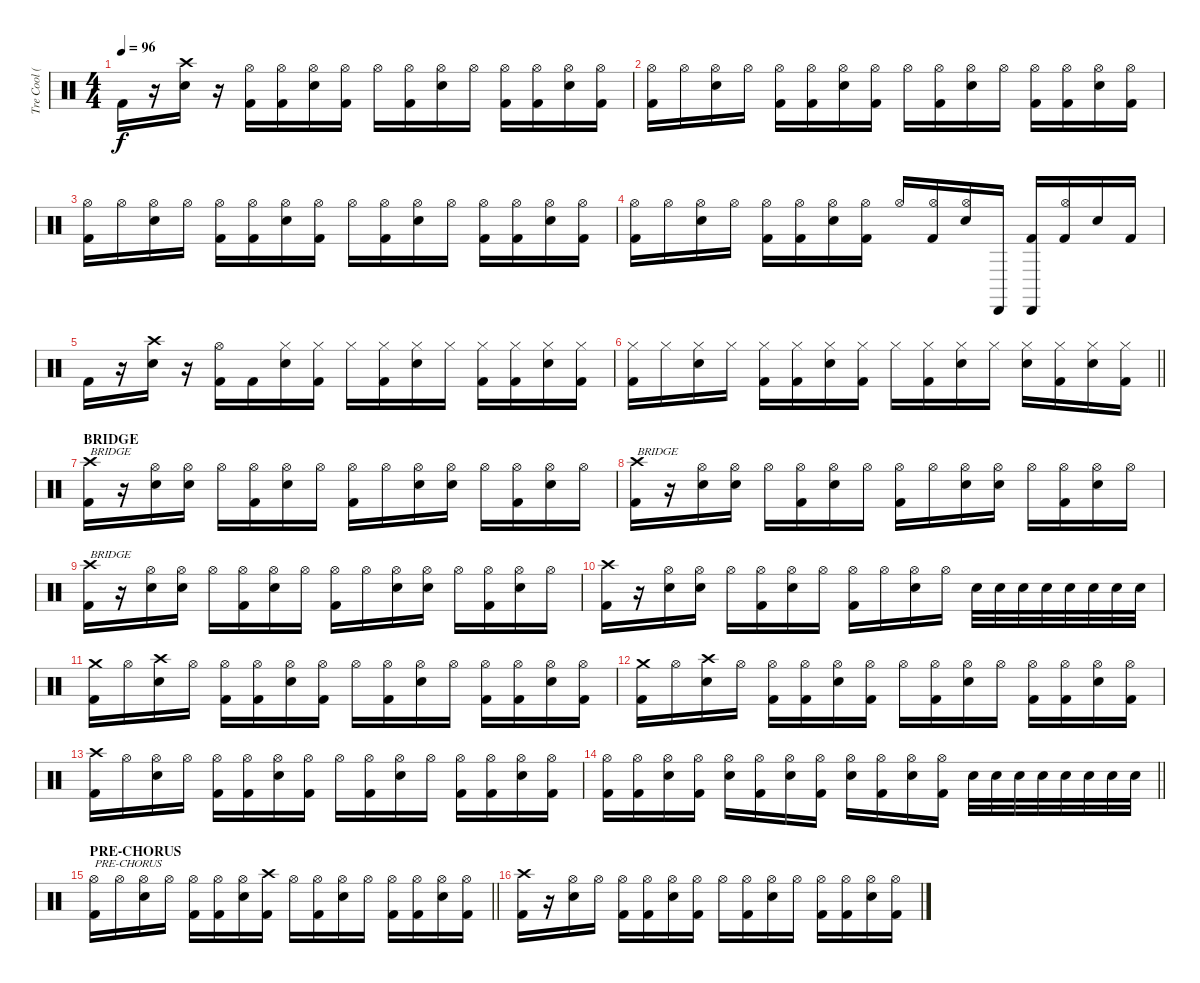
\track ("Tre Cool (Drums)" "Tre Cool (") {instrument percussion}
\staff {score}
\articulation defaults
\ts (4 4)
\tempo 96
\clef neutral
\ks c "Kick (hit) 2".16{dy f}
r.16 ("Crash high (hit)" "Electric Snare (hit)").16 r.16 ("Hi-Hat (open)" "Kick (hit) 2").16 ("Hi-Hat (open)" "Kick (hit) 2").16 ("Hi-Hat (open)" "Electric Snare (hit)").16 ("Hi-Hat (open)" "Kick (hit) 2").16 "Hi-Hat (open)".16 ("Hi-Hat (open)" "Kick (hit) 2").16 ("Hi-Hat (open)" "Electric Snare (hit)").16 "Hi-Hat (open)".16 ("Hi-Hat (open)" "Kick (hit) 2").16 ("Hi-Hat (open)" "Kick (hit) 2").16 ("Hi-Hat (open)" "Electric Snare (hit)").16 ("Hi-Hat (open)" "Kick (hit) 2").16 |
("Hi-Hat (open)" "Kick (hit) 2").16 "Hi-Hat (open)".16 ("Hi-Hat (open)" "Electric Snare (hit)").16 "Hi-Hat (open)".16 ("Hi-Hat (open)" "Kick (hit) 2").16 ("Hi-Hat (open)" "Kick (hit) 2").16 ("Hi-Hat (open)" "Electric Snare (hit)").16 ("Hi-Hat (open)" "Kick (hit) 2").16 "Hi-Hat (open)".16 ("Hi-Hat (open)" "Kick (hit) 2").16 ("Hi-Hat (open)" "Electric Snare (hit)").16 "Hi-Hat (open)".16 ("Hi-Hat (open)" "Kick (hit) 2").16 ("Hi-Hat (open)" "Kick (hit) 2").16 ("Hi-Hat (open)" "Electric Snare (hit)").16 ("Hi-Hat (open)" "Kick (hit) 2").16 |
("Hi-Hat (open)" "Kick (hit) 2").16 "Hi-Hat (open)".16 ("Hi-Hat (open)" "Electric Snare (hit)").16 "Hi-Hat (open)".16 ("Hi-Hat (open)" "Kick (hit) 2").16 ("Hi-Hat (open)" "Kick (hit) 2").16 ("Hi-Hat (open)" "Electric Snare (hit)").16 ("Hi-Hat (open)" "Kick (hit) 2").16 "Hi-Hat (open)".16 ("Hi-Hat (open)" "Kick (hit) 2").16 ("Hi-Hat (open)" "Electric Snare (hit)").16 "Hi-Hat (open)".16 ("Hi-Hat (open)" "Kick (hit) 2").16 ("Hi-Hat (open)" "Kick (hit) 2").16 ("Hi-Hat (open)" "Electric Snare (hit)").16 ("Hi-Hat (open)" "Kick (hit) 2").16 |
("Hi-Hat (open)" "Kick (hit) 2").16 "Hi-Hat (open)".16 ("Hi-Hat (open)" "Electric Snare (hit)").16 "Hi-Hat (open)".16 ("Hi-Hat (open)" "Kick (hit) 2").16 ("Hi-Hat (open)" "Kick (hit) 2").16 ("Hi-Hat (open)" "Electric Snare (hit)").16 ("Hi-Hat (open)" "Kick (hit) 2").16 "Hi-Hat (open)".16 ("Hi-Hat (open)" "Kick (hit) 2").16 ("Hi-Hat (open)" "Electric Snare (hit)").16 "Cabasa (hit)".16 ("Cabasa (hit)" "Kick (hit) 2").16 ("Hi-Hat (open)" "Kick (hit) 2").16 "Electric Snare (hit)".16 "Kick (hit) 2".16 |
"Kick (hit) 2".16 r.16 ("Crash high (hit)" "Electric Snare (hit)").16 r.16 ("Hi-Hat (open)" "Kick (hit) 2").16 "Kick (hit) 2".16 ("Hi-Hat (closed)" "Electric Snare (hit)").16 ("Hi-Hat (closed)" "Kick (hit) 2").16 "Hi-Hat (closed)".16 ("Hi-Hat (closed)" "Kick (hit) 2").16 ("Hi-Hat (closed)" "Electric Snare (hit)").16 "Hi-Hat (closed)".16 ("Hi-Hat (closed)" "Kick (hit) 2").16 ("Hi-Hat (closed)" "Kick (hit) 2").16 ("Hi-Hat (closed)" "Electric Snare (hit)").16 ("Hi-Hat (closed)" "Kick (hit) 2").16 |
\barLineRight lightlight
("Hi-Hat (closed)" "Kick (hit) 2").16 "Hi-Hat (closed)".16 ("Hi-Hat (closed)" "Electric Snare (hit)").16 "Hi-Hat (closed)".16 ("Hi-Hat (closed)" "Kick (hit) 2").16 ("Hi-Hat (closed)" "Kick (hit) 2").16 ("Hi-Hat (closed)" "Electric Snare (hit)").16 ("Hi-Hat (closed)" "Kick (hit) 2").16 "Hi-Hat (closed)".16 ("Hi-Hat (closed)" "Kick (hit) 2").16 ("Hi-Hat (closed)" "Electric Snare (hit)").16 "Hi-Hat (closed)".16 ("Hi-Hat (closed)" "Electric Snare (hit)").16 ("Hi-Hat (closed)" "Kick (hit) 2").16 ("Hi-Hat (closed)" "Electric Snare (hit)").16 ("Hi-Hat (closed)" "Kick (hit) 2").16 |
\section ("" "BRIDGE")
("Crash high (hit)" "Kick (hit) 2").16{txt "BRIDGE"} r.16 ("Hi-Hat (open)" "Electric Snare (hit)").16 ("Hi-Hat (open)" "Electric Snare (hit)").16 "Hi-Hat (open)".16 ("Hi-Hat (open)" "Kick (hit) 2").16 ("Hi-Hat (open)" "Electric Snare (hit)").16 "Hi-Hat (open)".16 ("Hi-Hat (open)" "Kick (hit) 2").16 "Hi-Hat (open)".16 ("Hi-Hat (open)" "Electric Snare (hit)").16 ("Hi-Hat (open)" "Electric Snare (hit)").16 "Hi-Hat (open)".16 ("Hi-Hat (open)" "Kick (hit) 2").16 ("Hi-Hat (open)" "Electric Snare (hit)").16 "Hi-Hat (open)".16 |
("Crash high (hit)" "Kick (hit) 2").16{txt "BRIDGE"} r.16 ("Hi-Hat (open)" "Electric Snare (hit)").16 ("Hi-Hat (open)" "Electric Snare (hit)").16 "Hi-Hat (open)".16 ("Hi-Hat (open)" "Kick (hit) 2").16 ("Hi-Hat (open)" "Electric Snare (hit)").16 "Hi-Hat (open)".16 ("Hi-Hat (open)" "Kick (hit) 2").16 "Hi-Hat (open)".16 ("Hi-Hat (open)" "Electric Snare (hit)").16 ("Hi-Hat (open)" "Electric Snare (hit)").16 "Hi-Hat (open)".16 ("Hi-Hat (open)" "Kick (hit) 2").16 ("Hi-Hat (open)" "Electric Snare (hit)").16 "Hi-Hat (open)".16 |
("Crash high (hit)" "Kick (hit) 2").16{txt "BRIDGE"} r.16 ("Hi-Hat (open)" "Electric Snare (hit)").16 ("Hi-Hat (open)" "Electric Snare (hit)").16 "Hi-Hat (open)".16 ("Hi-Hat (open)" "Kick (hit) 2").16 ("Hi-Hat (open)" "Electric Snare (hit)").16 "Hi-Hat (open)".16 ("Hi-Hat (open)" "Kick (hit) 2").16 "Hi-Hat (open)".16 ("Hi-Hat (open)" "Electric Snare (hit)").16 ("Hi-Hat (open)" "Electric Snare (hit)").16 "Hi-Hat (open)".16 ("Hi-Hat (open)" "Kick (hit) 2").16 ("Hi-Hat (open)" "Electric Snare (hit)").16 "Hi-Hat (open)".16 |
("Crash high (hit)" "Kick (hit) 2").16 r.16 ("Hi-Hat (open)" "Electric Snare (hit)").16 ("Hi-Hat (open)" "Electric Snare (hit)").16 "Hi-Hat (open)".16 ("Hi-Hat (open)" "Kick (hit) 2").16 ("Hi-Hat (open)" "Electric Snare (hit)").16 "Hi-Hat (open)".16 ("Hi-Hat (open)" "Kick (hit) 2").16 "Hi-Hat (open)".16 ("Hi-Hat (open)" "Electric Snare (hit)").16 "Hi-Hat (open)".16 "Electric Snare (hit)".32 "Electric Snare (hit)".32 "Electric Snare (hit)".32 "Electric Snare (hit)".32 "Electric Snare (hit)".32 "Electric Snare (hit)".32 "Electric Snare (hit)".32 "Electric Snare (hit)".32 |
("Crash medium (hit)" "Kick (hit) 2").16 "Hi-Hat (open)".16 ("Crash high (hit)" "Electric Snare (hit)").16 "Hi-Hat (open)".16 ("Hi-Hat (open)" "Kick (hit) 2").16 ("Hi-Hat (open)" "Kick (hit) 2").16 ("Hi-Hat (open)" "Electric Snare (hit)").16 ("Hi-Hat (open)" "Kick (hit) 2").16 "Hi-Hat (open)".16 ("Hi-Hat (open)" "Kick (hit) 2").16 ("Hi-Hat (open)" "Electric Snare (hit)").16 "Hi-Hat (open)".16 ("Hi-Hat (open)" "Kick (hit) 2").16 ("Hi-Hat (open)" "Kick (hit) 2").16 ("Hi-Hat (open)" "Electric Snare (hit)").16 ("Hi-Hat (open)" "Kick (hit) 2").16 |
("Crash medium (hit)" "Kick (hit) 2").16 "Hi-Hat (open)".16 ("Crash high (hit)" "Electric Snare (hit)").16 "Hi-Hat (open)".16 ("Hi-Hat (open)" "Kick (hit) 2").16 ("Hi-Hat (open)" "Kick (hit) 2").16 ("Hi-Hat (open)" "Electric Snare (hit)").16 ("Hi-Hat (open)" "Kick (hit) 2").16 "Hi-Hat (open)".16 ("Hi-Hat (open)" "Kick (hit) 2").16 ("Hi-Hat (open)" "Electric Snare (hit)").16 "Hi-Hat (open)".16 ("Hi-Hat (open)" "Kick (hit) 2").16 ("Hi-Hat (open)" "Kick (hit) 2").16 ("Hi-Hat (open)" "Electric Snare (hit)").16 ("Hi-Hat (open)" "Kick (hit) 2").16 |
("Crash high (hit)" "Kick (hit) 2").16 "Hi-Hat (open)".16 ("Hi-Hat (open)" "Electric Snare (hit)").16 "Hi-Hat (open)".16 ("Hi-Hat (open)" "Kick (hit) 2").16 ("Hi-Hat (open)" "Kick (hit) 2").16 ("Hi-Hat (open)" "Electric Snare (hit)").16 ("Hi-Hat (open)" "Kick (hit) 2").16 "Hi-Hat (open)".16 ("Hi-Hat (open)" "Kick (hit) 2").16 ("Hi-Hat (open)" "Electric Snare (hit)").16 "Hi-Hat (open)".16 ("Hi-Hat (open)" "Kick (hit) 2").16 ("Hi-Hat (open)" "Kick (hit) 2").16 ("Hi-Hat (open)" "Electric Snare (hit)").16 ("Hi-Hat (open)" "Kick (hit) 2").16 |
\barLineRight lightlight
("Hi-Hat (open)" "Kick (hit) 2").16 ("Hi-Hat (open)" "Kick (hit) 2").16 ("Hi-Hat (open)" "Electric Snare (hit)").16 ("Hi-Hat (open)" "Kick (hit) 2").16 ("Hi-Hat (open)" "Electric Snare (hit)").16 ("Hi-Hat (open)" "Kick (hit) 2").16 ("Hi-Hat (open)" "Electric Snare (hit)").16 ("Hi-Hat (open)" "Kick (hit) 2").16 ("Hi-Hat (open)" "Electric Snare (hit)").16 ("Hi-Hat (open)" "Kick (hit) 2").16 ("Hi-Hat (open)" "Electric Snare (hit)").16 ("Hi-Hat (open)" "Kick (hit) 2").16 "Electric Snare (hit)".32 "Electric Snare (hit)".32 "Electric Snare (hit)".32 "Electric Snare (hit)".32 "Electric Snare (hit)".32 "Electric Snare (hit)".32 "Electric Snare (hit)".32 "Electric Snare (hit)".32 |
\section ("" "PRE-CHORUS")
\barLineRight lightlight
("Hi-Hat (open)" "Kick (hit) 2").16{txt "PRE-CHORUS"} "Hi-Hat (open)".16 ("Hi-Hat (open)" "Electric Snare (hit)").16 "Hi-Hat (open)".16 ("Hi-Hat (open)" "Kick (hit) 2").16 ("Hi-Hat (open)" "Kick (hit) 2").16 ("Hi-Hat (open)" "Electric Snare (hit)").16 ("Crash high (hit)" "Kick (hit) 2").16 "Hi-Hat (open)".16 ("Hi-Hat (open)" "Kick (hit) 2").16 ("Hi-Hat (open)" "Electric Snare (hit)").16 "Hi-Hat (open)".16 ("Hi-Hat (open)" "Kick (hit) 2").16 ("Hi-Hat (open)" "Kick (hit) 2").16 ("Hi-Hat (open)" "Electric Snare (hit)").16 ("Hi-Hat (open)" "Kick (hit) 2").16 |
("Crash high (hit)" "Kick (hit) 2").16 r.16 ("Hi-Hat (open)" "Electric Snare (hit)").16 "Hi-Hat (open)".16 ("Hi-Hat (open)" "Kick (hit) 2").16 ("Hi-Hat (open)" "Kick (hit) 2").16 ("Hi-Hat (open)" "Electric Snare (hit)").16 ("Hi-Hat (open)" "Kick (hit) 2").16 "Hi-Hat (open)".16 ("Hi-Hat (open)" "Kick (hit) 2").16 ("Hi-Hat (open)" "Electric Snare (hit)").16 "Hi-Hat (open)".16 ("Hi-Hat (open)" "Kick (hit) 2").16 ("Hi-Hat (open)" "Kick (hit) 2").16 ("Hi-Hat (open)" "Electric Snare (hit)").16 ("Hi-Hat (open)" "Kick (hit) 2").16
